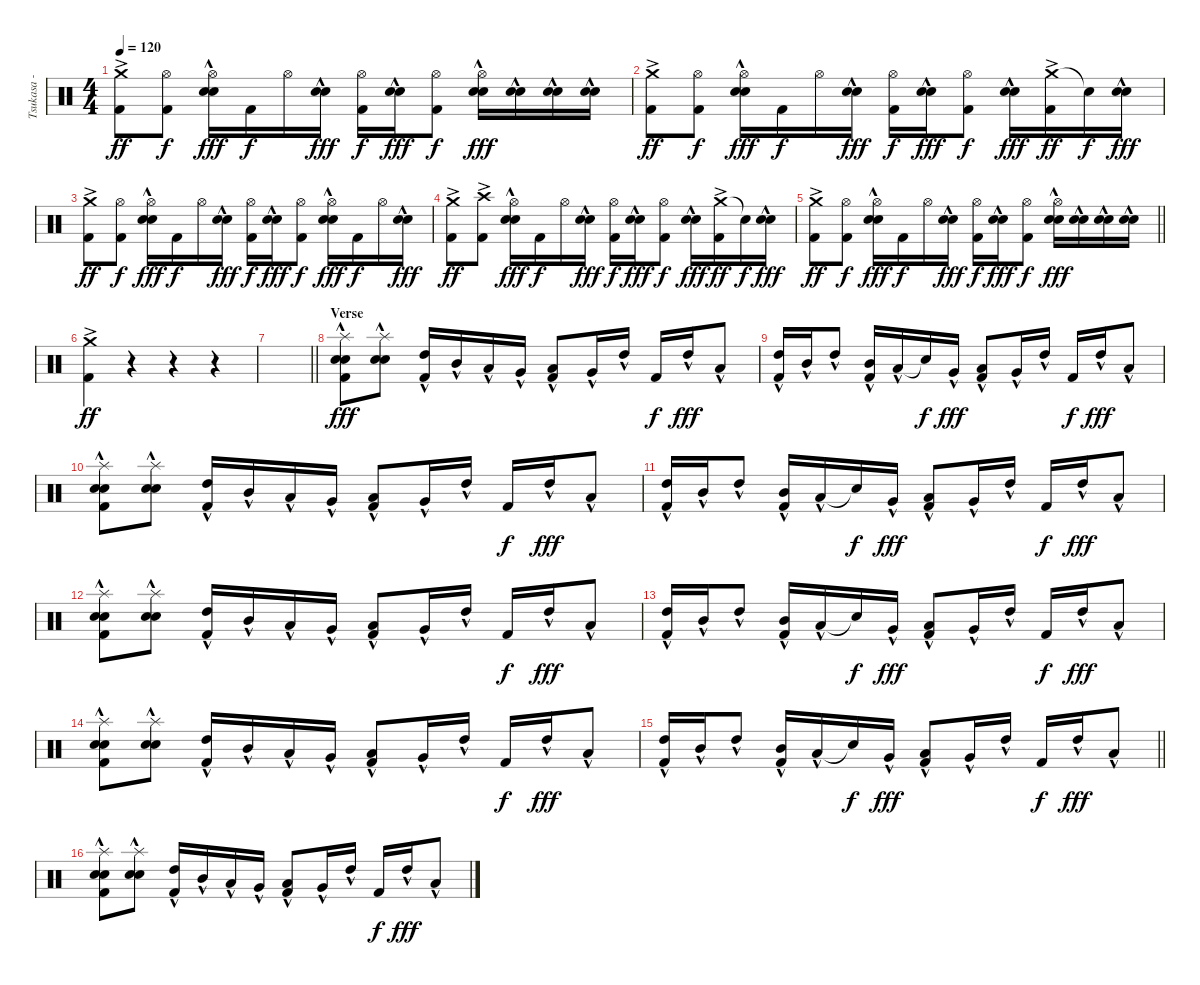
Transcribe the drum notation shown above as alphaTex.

\track ("Tsukasa - Drums" "Tsukasa - ") {instrument percussion}
\staff {score}
\articulation defaults
\ts (4 4)
\tempo 120
\clef neutral
\ks c
("Crash medium (hit)"{ac} "Kick (hit) 2").8{dy ff} ("Hi-Hat (open)" "Kick (hit) 2").8{dy f} ("Hi-Hat (open)" "Electric Snare (hit)"{hac} "Snare (hit) 2"{hac}).16{dy fff} "Kick (hit) 2".16{dy f} "Hi-Hat (open)".16 ("Electric Snare (hit)"{hac} "Snare (hit) 2"{hac}).16{dy fff} ("Hi-Hat (open)" "Kick (hit) 2").16{dy f} ("Electric Snare (hit)"{hac} "Snare (hit) 2"{hac}).16{dy fff} ("Hi-Hat (open)" "Kick (hit) 2").8{dy f} ("Hi-Hat (open)" "Electric Snare (hit)"{hac} "Snare (hit) 2"{hac}).16{dy fff} ("Electric Snare (hit)"{hac} "Snare (hit) 2"{hac}).16 ("Electric Snare (hit)"{hac} "Snare (hit) 2"{hac}).16 ("Electric Snare (hit)"{hac} "Snare (hit) 2"{hac}).16 |
("Crash medium (hit)"{ac} "Kick (hit) 2").8{dy ff} ("Hi-Hat (open)" "Kick (hit) 2").8{dy f} ("Hi-Hat (open)" "Electric Snare (hit)"{hac} "Snare (hit) 2"{hac}).16{dy fff} "Kick (hit) 2".16{dy f} "Hi-Hat (open)".16 ("Electric Snare (hit)"{hac} "Snare (hit) 2"{hac}).16{dy fff} ("Hi-Hat (open)" "Kick (hit) 2").16{dy f} ("Electric Snare (hit)"{hac} "Snare (hit) 2"{hac}).16{dy fff} ("Hi-Hat (open)" "Kick (hit) 2").8{dy f} ("Electric Snare (hit)"{hac} "Snare (hit) 2"{hac}).16{dy fff} ("Crash medium (hit)"{ac} "Kick (hit) 2").16{dy ff} "Snare (hit)"{t}.16{dy f} ("Electric Snare (hit)"{hac} "Snare (hit) 2"{hac}).16{dy fff} |
("Crash medium (hit)"{ac} "Kick (hit) 2").8{dy ff} ("Hi-Hat (open)" "Kick (hit) 2").8{dy f} ("Hi-Hat (open)" "Electric Snare (hit)"{hac} "Snare (hit) 2"{hac}).16{dy fff} "Kick (hit) 2".16{dy f} "Hi-Hat (open)".16 ("Electric Snare (hit)"{hac} "Snare (hit) 2"{hac}).16{dy fff} ("Hi-Hat (open)" "Kick (hit) 2").16{dy f} ("Electric Snare (hit)"{hac} "Snare (hit) 2"{hac}).16{dy fff} ("Hi-Hat (open)" "Kick (hit) 2").8{dy f} ("Hi-Hat (open)" "Electric Snare (hit)"{hac} "Snare (hit) 2"{hac}).16{dy fff} "Kick (hit) 2".16{dy f} "Hi-Hat (open)".16 ("Electric Snare (hit)"{hac} "Snare (hit) 2"{hac}).16{dy fff} |
("Crash medium (hit)"{ac} "Kick (hit) 2").8{dy ff} ("Crash high (hit)"{ac} "Kick (hit) 2").8 ("Hi-Hat (open)" "Electric Snare (hit)"{hac} "Snare (hit) 2"{hac}).16{dy fff} "Kick (hit) 2".16{dy f} "Hi-Hat (open)".16 ("Electric Snare (hit)"{hac} "Snare (hit) 2"{hac}).16{dy fff} ("Hi-Hat (open)" "Kick (hit) 2").16{dy f} ("Electric Snare (hit)"{hac} "Snare (hit) 2"{hac}).16{dy fff} ("Hi-Hat (open)" "Kick (hit) 2").8{dy f} ("Electric Snare (hit)"{hac} "Snare (hit) 2"{hac}).16{dy fff} ("Crash medium (hit)"{ac} "Kick (hit) 2").16{dy ff} "Snare (hit)"{t}.16{dy f} ("Electric Snare (hit)"{hac} "Snare (hit) 2"{hac}).16{dy fff} |
\barLineRight lightlight
("Crash medium (hit)"{ac} "Kick (hit) 2").8{dy ff} ("Hi-Hat (open)" "Kick (hit) 2").8{dy f} ("Hi-Hat (open)" "Electric Snare (hit)"{hac} "Snare (hit) 2"{hac}).16{dy fff} "Kick (hit) 2".16{dy f} "Hi-Hat (open)".16 ("Electric Snare (hit)"{hac} "Snare (hit) 2"{hac}).16{dy fff} ("Hi-Hat (open)" "Kick (hit) 2").16{dy f} ("Electric Snare (hit)"{hac} "Snare (hit) 2"{hac}).16{dy fff} ("Hi-Hat (open)" "Kick (hit) 2").8{dy f} ("Hi-Hat (open)" "Electric Snare (hit)"{hac} "Snare (hit) 2"{hac}).16{dy fff} ("Electric Snare (hit)"{hac} "Snare (hit) 2"{hac}).16 ("Electric Snare (hit)"{hac} "Snare (hit) 2"{hac}).16 ("Electric Snare (hit)"{hac} "Snare (hit) 2"{hac}).16 |
("Crash medium (hit)"{ac} "Kick (hit) 2").4{dy ff} r.4 r.4 r.4 |
\barLineRight lightlight
|
\section ("" "Verse")
("Splash (hit)"{hac} "Electric Snare (hit)"{hac} "Snare (hit) 2"{hac} "Kick (hit) 2").8{dy fff} ("Splash (hit)"{hac} "Electric Snare (hit)" "Snare (hit) 2").8 ("High Tom (hit)"{hac} "Kick (hit) 2").16 "Mid Tom (hit)"{hac}.16 "Low Tom (hit)"{hac}.16 "Very Low Tom (hit)"{hac}.16 ("Low Tom (hit)"{hac} "Kick (hit) 2").8 "Very Low Tom (hit)"{hac}.16 "High Tom (hit)"{hac}.16 "Kick (hit) 2".16{dy f} "High Tom (hit)"{hac}.16{dy fff} "Low Tom (hit)"{hac}.8 |
("High Tom (hit)"{hac} "Kick (hit) 2").16 "Mid Tom (hit)"{hac}.16 "High Tom (hit)"{hac}.8 ("Mid Tom (hit)"{hac} "Kick (hit) 2").16 "Low Tom (hit)"{hac}.16 "Snare (hit)"{t}.16{dy f} "Very Low Tom (hit)"{hac}.16{dy fff} ("Low Tom (hit)"{hac} "Kick (hit) 2").8 "Very Low Tom (hit)"{hac}.16 "High Tom (hit)"{hac}.16 "Kick (hit) 2".16{dy f} "High Tom (hit)"{hac}.16{dy fff} "Low Tom (hit)"{hac}.8 |
("Splash (hit)"{hac} "Electric Snare (hit)"{hac} "Snare (hit) 2"{hac} "Kick (hit) 2").8 ("Splash (hit)"{hac} "Electric Snare (hit)" "Snare (hit) 2").8 ("High Tom (hit)"{hac} "Kick (hit) 2").16 "Mid Tom (hit)"{hac}.16 "Low Tom (hit)"{hac}.16 "Very Low Tom (hit)"{hac}.16 ("Low Tom (hit)"{hac} "Kick (hit) 2").8 "Very Low Tom (hit)"{hac}.16 "High Tom (hit)"{hac}.16 "Kick (hit) 2".16{dy f} "High Tom (hit)"{hac}.16{dy fff} "Low Tom (hit)"{hac}.8 |
("High Tom (hit)"{hac} "Kick (hit) 2").16 "Mid Tom (hit)"{hac}.16 "High Tom (hit)"{hac}.8 ("Mid Tom (hit)"{hac} "Kick (hit) 2").16 "Low Tom (hit)"{hac}.16 "Snare (hit)"{t}.16{dy f} "Very Low Tom (hit)"{hac}.16{dy fff} ("Low Tom (hit)"{hac} "Kick (hit) 2").8 "Very Low Tom (hit)"{hac}.16 "High Tom (hit)"{hac}.16 "Kick (hit) 2".16{dy f} "High Tom (hit)"{hac}.16{dy fff} "Low Tom (hit)"{hac}.8 |
("Splash (hit)"{hac} "Electric Snare (hit)"{hac} "Snare (hit) 2"{hac} "Kick (hit) 2").8 ("Splash (hit)"{hac} "Electric Snare (hit)" "Snare (hit) 2").8 ("High Tom (hit)"{hac} "Kick (hit) 2").16 "Mid Tom (hit)"{hac}.16 "Low Tom (hit)"{hac}.16 "Very Low Tom (hit)"{hac}.16 ("Low Tom (hit)"{hac} "Kick (hit) 2").8 "Very Low Tom (hit)"{hac}.16 "High Tom (hit)"{hac}.16 "Kick (hit) 2".16{dy f} "High Tom (hit)"{hac}.16{dy fff} "Low Tom (hit)"{hac}.8 |
("High Tom (hit)"{hac} "Kick (hit) 2").16 "Mid Tom (hit)"{hac}.16 "High Tom (hit)"{hac}.8 ("Mid Tom (hit)"{hac} "Kick (hit) 2").16 "Low Tom (hit)"{hac}.16 "Snare (hit)"{t}.16{dy f} "Very Low Tom (hit)"{hac}.16{dy fff} ("Low Tom (hit)"{hac} "Kick (hit) 2").8 "Very Low Tom (hit)"{hac}.16 "High Tom (hit)"{hac}.16 "Kick (hit) 2".16{dy f} "High Tom (hit)"{hac}.16{dy fff} "Low Tom (hit)"{hac}.8 |
("Splash (hit)"{hac} "Electric Snare (hit)"{hac} "Snare (hit) 2"{hac} "Kick (hit) 2").8 ("Splash (hit)"{hac} "Electric Snare (hit)" "Snare (hit) 2").8 ("High Tom (hit)"{hac} "Kick (hit) 2").16 "Mid Tom (hit)"{hac}.16 "Low Tom (hit)"{hac}.16 "Very Low Tom (hit)"{hac}.16 ("Low Tom (hit)"{hac} "Kick (hit) 2").8 "Very Low Tom (hit)"{hac}.16 "High Tom (hit)"{hac}.16 "Kick (hit) 2".16{dy f} "High Tom (hit)"{hac}.16{dy fff} "Low Tom (hit)"{hac}.8 |
\barLineRight lightlight
("High Tom (hit)"{hac} "Kick (hit) 2").16 "Mid Tom (hit)"{hac}.16 "High Tom (hit)"{hac}.8 ("Mid Tom (hit)"{hac} "Kick (hit) 2").16 "Low Tom (hit)"{hac}.16 "Snare (hit)"{t}.16{dy f} "Very Low Tom (hit)"{hac}.16{dy fff} ("Low Tom (hit)"{hac} "Kick (hit) 2").8 "Very Low Tom (hit)"{hac}.16 "High Tom (hit)"{hac}.16 "Kick (hit) 2".16{dy f} "High Tom (hit)"{hac}.16{dy fff} "Low Tom (hit)"{hac}.8 |
\section ("" "")
("Splash (hit)"{hac} "Electric Snare (hit)"{hac} "Snare (hit) 2"{hac} "Kick (hit) 2").8 ("Splash (hit)"{hac} "Electric Snare (hit)" "Snare (hit) 2").8 ("High Tom (hit)"{hac} "Kick (hit) 2").16 "Mid Tom (hit)"{hac}.16 "Low Tom (hit)"{hac}.16 "Very Low Tom (hit)"{hac}.16 ("Low Tom (hit)"{hac} "Kick (hit) 2").8 "Very Low Tom (hit)"{hac}.16 "High Tom (hit)"{hac}.16 "Kick (hit) 2".16{dy f} "High Tom (hit)"{hac}.16{dy fff} "Low Tom (hit)"{hac}.8
